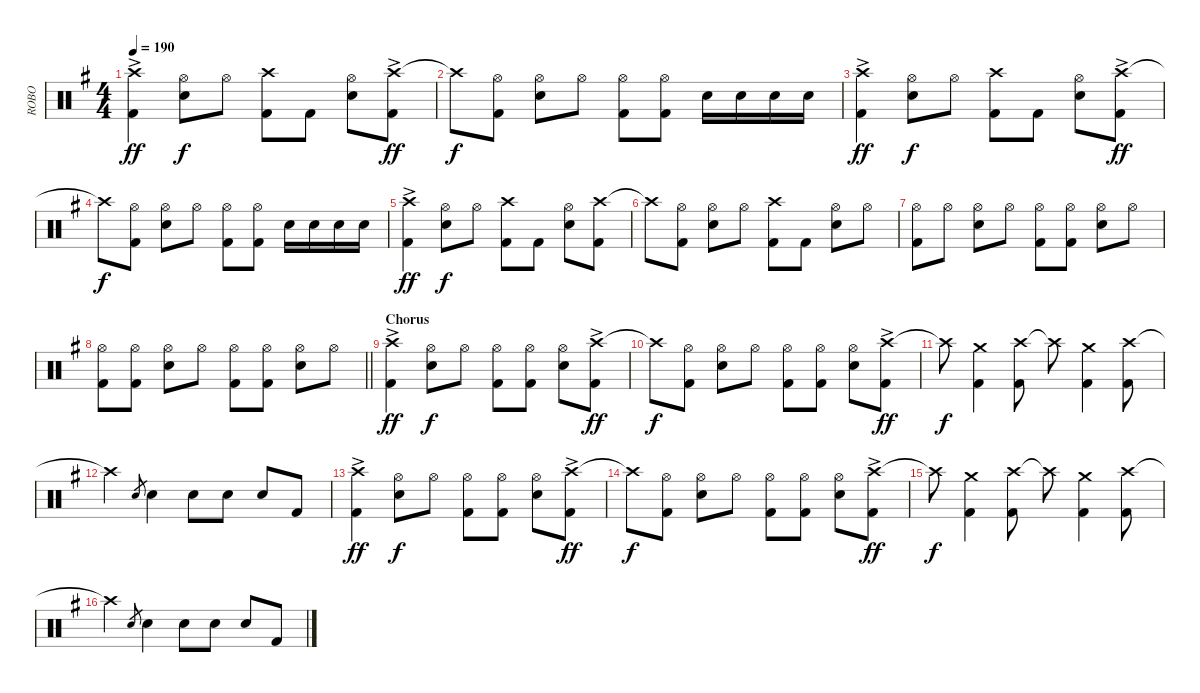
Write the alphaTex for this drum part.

\track ("ROBO" "ROBO") {instrument percussion}
\staff {score}
\articulation defaults
\ts (4 4)
\tempo 190
\clef neutral
\ks eminor
("Crash high (hit)"{ac} "Kick (hit) 2").4{dy ff} ("Hi-Hat (open)" "Snare (hit) 2").8{dy f} "Hi-Hat (open)".8 ("Crash high (hit)" "Kick (hit) 2").8 "Kick (hit) 2".8 ("Hi-Hat (open)" "Snare (hit) 2").8 ("Crash high (hit)"{ac} "Kick (hit) 2").8{dy ff} |
"Crash high (hit)"{t}.8{dy f} ("Hi-Hat (open)" "Kick (hit) 2").8 ("Hi-Hat (open)" "Snare (hit) 2").8 "Hi-Hat (open)".8 ("Hi-Hat (open)" "Kick (hit) 2").8 ("Hi-Hat (open)" "Kick (hit) 2").8 "Snare (hit) 2".16 "Snare (hit) 2".16 "Snare (hit) 2".16 "Snare (hit) 2".16 |
("Crash high (hit)"{ac} "Kick (hit) 2").4{dy ff} ("Hi-Hat (open)" "Snare (hit) 2").8{dy f} "Hi-Hat (open)".8 ("Crash high (hit)" "Kick (hit) 2").8 "Kick (hit) 2".8 ("Hi-Hat (open)" "Snare (hit) 2").8 ("Crash high (hit)"{ac} "Kick (hit) 2").8{dy ff} |
"Crash high (hit)"{t}.8{dy f} ("Hi-Hat (open)" "Kick (hit) 2").8 ("Hi-Hat (open)" "Snare (hit) 2").8 "Hi-Hat (open)".8 ("Hi-Hat (open)" "Kick (hit) 2").8 ("Hi-Hat (open)" "Kick (hit) 2").8 "Snare (hit) 2".16 "Snare (hit) 2".16 "Snare (hit) 2".16 "Snare (hit) 2".16 |
("Crash high (hit)"{ac} "Kick (hit) 2").4{dy ff} ("Hi-Hat (open)" "Snare (hit) 2").8{dy f} "Hi-Hat (open)".8 ("Crash high (hit)" "Kick (hit) 2").8 "Kick (hit) 2".8 ("Hi-Hat (open)" "Snare (hit) 2").8 ("Crash high (hit)" "Kick (hit) 2").8 |
"Crash high (hit)"{t}.8 ("Hi-Hat (open)" "Kick (hit) 2").8 ("Hi-Hat (open)" "Snare (hit) 2").8 "Hi-Hat (open)".8 ("Crash high (hit)" "Kick (hit) 2").8 "Kick (hit) 2".8 ("Hi-Hat (open)" "Snare (hit) 2").8 "Hi-Hat (open)".8 |
("Hi-Hat (open)" "Kick (hit) 2").8 "Hi-Hat (open)".8 ("Hi-Hat (open)" "Snare (hit) 2").8 "Hi-Hat (open)".8 ("Hi-Hat (open)" "Kick (hit) 2").8 ("Hi-Hat (open)" "Kick (hit) 2").8 ("Hi-Hat (open)" "Snare (hit) 2").8 "Hi-Hat (open)".8 |
\barLineRight lightlight
("Hi-Hat (open)" "Kick (hit) 2").8 ("Hi-Hat (open)" "Kick (hit) 2").8 ("Hi-Hat (open)" "Snare (hit) 2").8 "Hi-Hat (open)".8 ("Hi-Hat (open)" "Kick (hit) 2").8 ("Hi-Hat (open)" "Kick (hit) 2").8 ("Hi-Hat (open)" "Snare (hit) 2").8 "Hi-Hat (open)".8 |
\section ("" "Chorus")
("Crash high (hit)"{ac} "Kick (hit) 2").4{dy ff} ("Hi-Hat (open)" "Snare (hit) 2").8{dy f} "Hi-Hat (open)".8 ("Hi-Hat (open)" "Kick (hit) 2").8 ("Hi-Hat (open)" "Kick (hit) 2").8 ("Hi-Hat (open)" "Snare (hit) 2").8 ("Crash high (hit)"{ac} "Kick (hit) 2").8{dy ff} |
"Crash high (hit)"{t}.8{dy f} ("Hi-Hat (open)" "Kick (hit) 2").8 ("Hi-Hat (open)" "Snare (hit) 2").8 "Hi-Hat (open)".8 ("Hi-Hat (open)" "Kick (hit) 2").8 ("Hi-Hat (open)" "Kick (hit) 2").8 ("Hi-Hat (open)" "Snare (hit) 2").8 ("Crash high (hit)"{ac} "Kick (hit) 2").8{dy ff} |
"Crash high (hit)"{t}.8{dy f} ("Crash medium (hit)" "Kick (hit) 2").4 ("Crash high (hit)" "Kick (hit) 2").8 "Crash high (hit)"{t}.8 ("Crash medium (hit)" "Kick (hit) 2").4 ("Crash high (hit)" "Kick (hit) 2").8 |
"Crash high (hit)"{t}.4 "Snare (hit) 2".8{gr} "Snare (hit) 2".4 "Snare (hit) 2".8 "Snare (hit) 2".8 "Snare (hit) 2".8 "Kick (hit) 2".8 |
("Crash high (hit)"{ac} "Kick (hit) 2").4{dy ff} ("Hi-Hat (open)" "Snare (hit) 2").8{dy f} "Hi-Hat (open)".8 ("Hi-Hat (open)" "Kick (hit) 2").8 ("Hi-Hat (open)" "Kick (hit) 2").8 ("Hi-Hat (open)" "Snare (hit) 2").8 ("Crash high (hit)"{ac} "Kick (hit) 2").8{dy ff} |
"Crash high (hit)"{t}.8{dy f} ("Hi-Hat (open)" "Kick (hit) 2").8 ("Hi-Hat (open)" "Snare (hit) 2").8 "Hi-Hat (open)".8 ("Hi-Hat (open)" "Kick (hit) 2").8 ("Hi-Hat (open)" "Kick (hit) 2").8 ("Hi-Hat (open)" "Snare (hit) 2").8 ("Crash high (hit)"{ac} "Kick (hit) 2").8{dy ff} |
"Crash high (hit)"{t}.8{dy f} ("Crash medium (hit)" "Kick (hit) 2").4 ("Crash high (hit)" "Kick (hit) 2").8 "Crash high (hit)"{t}.8 ("Crash medium (hit)" "Kick (hit) 2").4 ("Crash high (hit)" "Kick (hit) 2").8 |
"Crash high (hit)"{t}.4 "Snare (hit) 2".8{gr} "Snare (hit) 2".4 "Snare (hit) 2".8 "Snare (hit) 2".8 "Snare (hit) 2".8 "Kick (hit) 2".8
